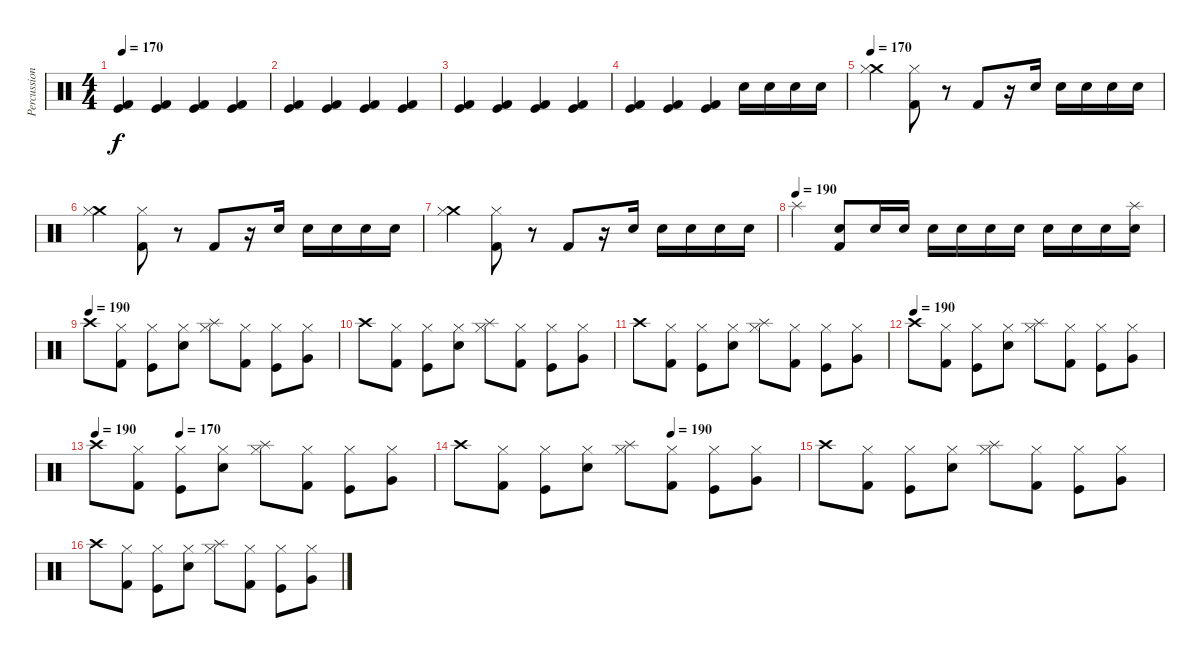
\track ("Percussions" "Percussion") {instrument percussion}
\staff {score}
\articulation defaults
\ts (4 4)
\tempo 170
\clef neutral
\ks c
("Kick (hit) 2" "Kick (hit)").4{dy f} ("Kick (hit) 2" "Kick (hit)").4 ("Kick (hit) 2" "Kick (hit)").4 ("Kick (hit) 2" "Kick (hit)").4 |
("Kick (hit) 2" "Kick (hit)").4 ("Kick (hit) 2" "Kick (hit)").4 ("Kick (hit) 2" "Kick (hit)").4 ("Kick (hit) 2" "Kick (hit)").4 |
("Kick (hit) 2" "Kick (hit)").4 ("Kick (hit) 2" "Kick (hit)").4 ("Kick (hit) 2" "Kick (hit)").4 ("Kick (hit) 2" "Kick (hit)").4 |
("Kick (hit) 2" "Kick (hit)").4 ("Kick (hit) 2" "Kick (hit)").4 ("Kick (hit) 2" "Kick (hit)").4 "Snare (hit) 2".16 "Snare (hit) 2".16 "Snare (hit) 2".16 "Snare (hit) 2".16 |
\tempo 170
("Crash medium (hit)" "Hi-Hat (closed)").4 ("Hi-Hat (closed)" "Kick (hit) 2").8 r.8 "Kick (hit) 2".8 r.16 "Snare (hit) 2".16 "Snare (hit) 2".16 "Snare (hit) 2".16 "Snare (hit) 2".16 "Snare (hit) 2".16 |
("Crash medium (hit)" "Hi-Hat (closed)").4 ("Hi-Hat (closed)" "Kick (hit) 2").8 r.8 "Kick (hit) 2".8 r.16 "Snare (hit) 2".16 "Snare (hit) 2".16 "Snare (hit) 2".16 "Snare (hit) 2".16 "Snare (hit) 2".16 |
("Crash medium (hit)" "Hi-Hat (closed)").4 ("Hi-Hat (closed)" "Kick (hit) 2").8 r.8 "Kick (hit) 2".8 r.16 "Snare (hit) 2".16 "Snare (hit) 2".16 "Snare (hit) 2".16 "Snare (hit) 2".16 "Snare (hit) 2".16 |
\tempo (190)
"Splash (hit)".4 ("Kick (hit) 2" "Snare (hit) 2").8 "Snare (hit) 2".16 "Snare (hit) 2".16 "Snare (hit) 2".16 "Snare (hit) 2".16 "Snare (hit) 2".16 "Snare (hit) 2".16 "Snare (hit) 2".16 "Snare (hit) 2".16 "Snare (hit) 2".16 ("Splash (hit)" "Snare (hit) 2").16 |
\tempo (190)
"Crash high (hit)".8 ("Hi-Hat (closed)" "Kick (hit) 2").8 ("Hi-Hat (closed)" "Kick (hit)").8 ("Hi-Hat (closed)" "Snare (hit) 2").8 ("Hi-Hat (closed)" "Splash (hit)").8 ("Hi-Hat (closed)" "Kick (hit) 2").8 ("Hi-Hat (closed)" "Kick (hit)").8 ("Hi-Hat (closed)" "Very Low Tom (hit)").8 |
"Crash high (hit)".8 ("Hi-Hat (closed)" "Kick (hit) 2").8 ("Hi-Hat (closed)" "Kick (hit)").8 ("Hi-Hat (closed)" "Snare (hit) 2").8 ("Hi-Hat (closed)" "Splash (hit)").8 ("Hi-Hat (closed)" "Kick (hit) 2").8 ("Hi-Hat (closed)" "Kick (hit)").8 ("Hi-Hat (closed)" "Very Low Tom (hit)").8 |
"Crash high (hit)".8 ("Hi-Hat (closed)" "Kick (hit) 2").8 ("Hi-Hat (closed)" "Kick (hit)").8 ("Hi-Hat (closed)" "Snare (hit) 2").8 ("Hi-Hat (closed)" "Splash (hit)").8 ("Hi-Hat (closed)" "Kick (hit) 2").8 ("Hi-Hat (closed)" "Kick (hit)").8 ("Hi-Hat (closed)" "Very Low Tom (hit)").8 |
\tempo (190)
"Crash high (hit)".8 ("Hi-Hat (closed)" "Kick (hit) 2").8 ("Hi-Hat (closed)" "Kick (hit)").8 ("Hi-Hat (closed)" "Snare (hit) 2").8 ("Hi-Hat (closed)" "Splash (hit)").8 ("Hi-Hat (closed)" "Kick (hit) 2").8 ("Hi-Hat (closed)" "Kick (hit)").8 ("Hi-Hat (closed)" "Very Low Tom (hit)").8 |
\tempo 190
\tempo (170 0.25)
"Crash high (hit)".8 ("Hi-Hat (closed)" "Kick (hit) 2").8 ("Hi-Hat (closed)" "Kick (hit)").8 ("Hi-Hat (closed)" "Snare (hit) 2").8 ("Hi-Hat (closed)" "Splash (hit)").8 ("Hi-Hat (closed)" "Kick (hit) 2").8 ("Hi-Hat (closed)" "Kick (hit)").8 ("Hi-Hat (closed)" "Very Low Tom (hit)").8 |
\tempo (190 0.625)
"Crash high (hit)".8 ("Hi-Hat (closed)" "Kick (hit) 2").8 ("Hi-Hat (closed)" "Kick (hit)").8 ("Hi-Hat (closed)" "Snare (hit) 2").8 ("Hi-Hat (closed)" "Splash (hit)").8 ("Hi-Hat (closed)" "Kick (hit) 2").8 ("Hi-Hat (closed)" "Kick (hit)").8 ("Hi-Hat (closed)" "Very Low Tom (hit)").8 |
"Crash high (hit)".8 ("Hi-Hat (closed)" "Kick (hit) 2").8 ("Hi-Hat (closed)" "Kick (hit)").8 ("Hi-Hat (closed)" "Snare (hit) 2").8 ("Hi-Hat (closed)" "Splash (hit)").8 ("Hi-Hat (closed)" "Kick (hit) 2").8 ("Hi-Hat (closed)" "Kick (hit)").8 ("Hi-Hat (closed)" "Very Low Tom (hit)").8 |
"Crash high (hit)".8 ("Hi-Hat (closed)" "Kick (hit) 2").8 ("Hi-Hat (closed)" "Kick (hit)").8 ("Hi-Hat (closed)" "Snare (hit) 2").8 ("Hi-Hat (closed)" "Splash (hit)").8 ("Hi-Hat (closed)" "Kick (hit) 2").8 ("Hi-Hat (closed)" "Kick (hit)").8 ("Hi-Hat (closed)" "Very Low Tom (hit)").8
